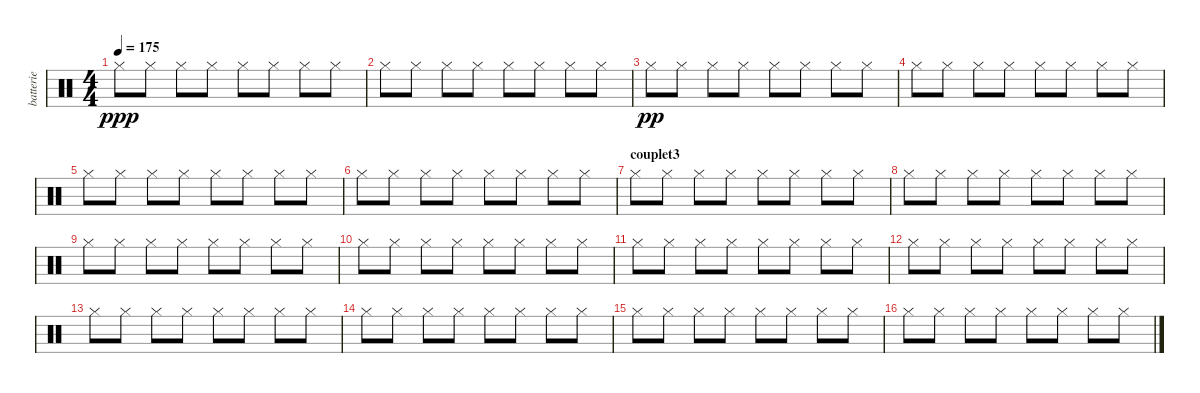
\track ("batterie" "batterie") {instrument percussion}
\staff {score}
\articulation defaults
\ts (4 4)
\tempo 175
\clef neutral
\ks c "Hi-Hat (closed)".8{dy ppp} "Hi-Hat (closed)".8 "Hi-Hat (closed)".8 "Hi-Hat (closed)".8 "Hi-Hat (closed)".8 "Hi-Hat (closed)".8 "Hi-Hat (closed)".8 "Hi-Hat (closed)".8
|
"Hi-Hat (closed)".8 "Hi-Hat (closed)".8 "Hi-Hat (closed)".8 "Hi-Hat (closed)".8 "Hi-Hat (closed)".8 "Hi-Hat (closed)".8 "Hi-Hat (closed)".8 "Hi-Hat (closed)".8 |
"Hi-Hat (closed)".8{dy pp} "Hi-Hat (closed)".8 "Hi-Hat (closed)".8 "Hi-Hat (closed)".8 "Hi-Hat (closed)".8 "Hi-Hat (closed)".8 "Hi-Hat (closed)".8 "Hi-Hat (closed)".8 |
"Hi-Hat (closed)".8 "Hi-Hat (closed)".8 "Hi-Hat (closed)".8 "Hi-Hat (closed)".8 "Hi-Hat (closed)".8 "Hi-Hat (closed)".8 "Hi-Hat (closed)".8 "Hi-Hat (closed)".8 |
"Hi-Hat (closed)".8 "Hi-Hat (closed)".8 "Hi-Hat (closed)".8 "Hi-Hat (closed)".8 "Hi-Hat (closed)".8 "Hi-Hat (closed)".8 "Hi-Hat (closed)".8 "Hi-Hat (closed)".8 |
"Hi-Hat (closed)".8 "Hi-Hat (closed)".8 "Hi-Hat (closed)".8 "Hi-Hat (closed)".8 "Hi-Hat (closed)".8 "Hi-Hat (closed)".8 "Hi-Hat (closed)".8 "Hi-Hat (closed)".8 |
\section ("" "couplet3")
"Hi-Hat (closed)".8 "Hi-Hat (closed)".8 "Hi-Hat (closed)".8 "Hi-Hat (closed)".8 "Hi-Hat (closed)".8 "Hi-Hat (closed)".8 "Hi-Hat (closed)".8 "Hi-Hat (closed)".8 |
"Hi-Hat (closed)".8 "Hi-Hat (closed)".8 "Hi-Hat (closed)".8 "Hi-Hat (closed)".8 "Hi-Hat (closed)".8 "Hi-Hat (closed)".8 "Hi-Hat (closed)".8 "Hi-Hat (closed)".8 |
"Hi-Hat (closed)".8 "Hi-Hat (closed)".8 "Hi-Hat (closed)".8 "Hi-Hat (closed)".8 "Hi-Hat (closed)".8 "Hi-Hat (closed)".8 "Hi-Hat (closed)".8 "Hi-Hat (closed)".8 |
"Hi-Hat (closed)".8 "Hi-Hat (closed)".8 "Hi-Hat (closed)".8 "Hi-Hat (closed)".8 "Hi-Hat (closed)".8 "Hi-Hat (closed)".8 "Hi-Hat (closed)".8 "Hi-Hat (closed)".8 |
"Hi-Hat (closed)".8 "Hi-Hat (closed)".8 "Hi-Hat (closed)".8 "Hi-Hat (closed)".8 "Hi-Hat (closed)".8 "Hi-Hat (closed)".8 "Hi-Hat (closed)".8 "Hi-Hat (closed)".8 |
"Hi-Hat (closed)".8 "Hi-Hat (closed)".8 "Hi-Hat (closed)".8 "Hi-Hat (closed)".8 "Hi-Hat (closed)".8 "Hi-Hat (closed)".8 "Hi-Hat (closed)".8 "Hi-Hat (closed)".8 |
"Hi-Hat (closed)".8 "Hi-Hat (closed)".8 "Hi-Hat (closed)".8 "Hi-Hat (closed)".8 "Hi-Hat (closed)".8 "Hi-Hat (closed)".8 "Hi-Hat (closed)".8 "Hi-Hat (closed)".8 |
"Hi-Hat (closed)".8 "Hi-Hat (closed)".8 "Hi-Hat (closed)".8 "Hi-Hat (closed)".8 "Hi-Hat (closed)".8 "Hi-Hat (closed)".8 "Hi-Hat (closed)".8 "Hi-Hat (closed)".8 |
"Hi-Hat (closed)".8 "Hi-Hat (closed)".8 "Hi-Hat (closed)".8 "Hi-Hat (closed)".8 "Hi-Hat (closed)".8 "Hi-Hat (closed)".8 "Hi-Hat (closed)".8 "Hi-Hat (closed)".8 |
"Hi-Hat (closed)".8 "Hi-Hat (closed)".8 "Hi-Hat (closed)".8 "Hi-Hat (closed)".8 "Hi-Hat (closed)".8 "Hi-Hat (closed)".8 "Hi-Hat (closed)".8 "Hi-Hat (closed)".8
